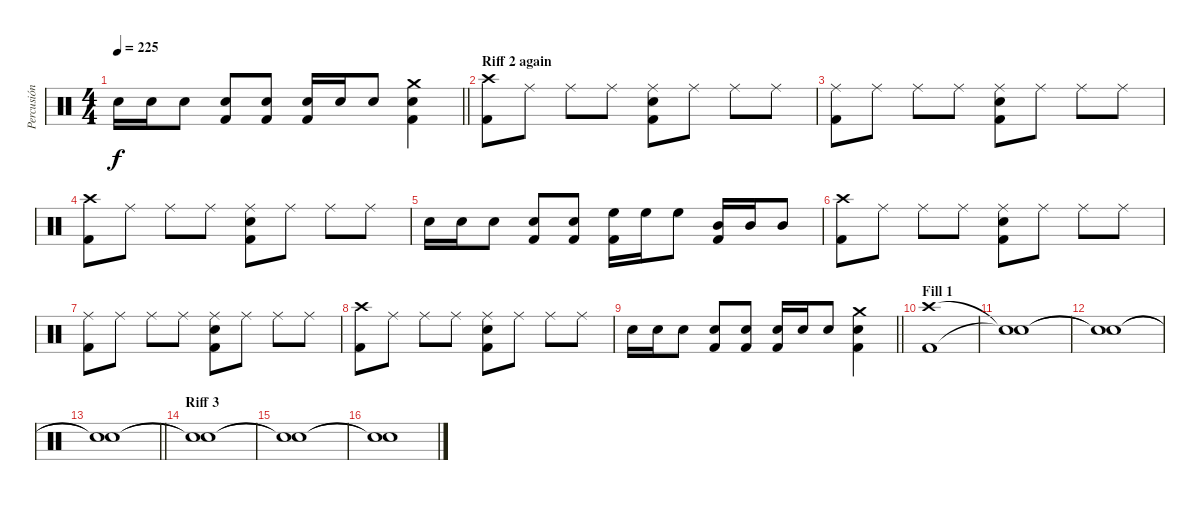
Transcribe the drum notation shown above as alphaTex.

\track ("Percusión" "Percusión") {instrument percussion}
\staff {score}
\articulation defaults
\ts (4 4)
\tempo 225
\clef neutral
\barLineRight lightlight
\ks c "Electric Snare (hit)".16{dy f} "Electric Snare (hit)".16 "Electric Snare (hit)".8
("Electric Snare (hit)" "Kick (hit) 2").8 ("Electric Snare (hit)" "Kick (hit) 2").8 ("Electric Snare (hit)" "Kick (hit) 2").16 "Electric Snare (hit)".16 "Electric Snare (hit)".8 ("Crash medium (hit)" "Electric Snare (hit)" "Kick (hit) 2").4 |
\section ("" "Riff 2 again")
("Crash high (hit)" "Kick (hit) 2").8 "Ride (middle)".8 "Ride (middle)".8 "Ride (middle)".8 ("Ride (middle)" "Electric Snare (hit)" "Kick (hit) 2").8 "Ride (middle)".8 "Ride (middle)".8 "Ride (middle)".8 |
("Ride (middle)" "Kick (hit) 2").8 "Ride (middle)".8 "Ride (middle)".8 "Ride (middle)".8 ("Ride (middle)" "Electric Snare (hit)" "Kick (hit) 2").8 "Ride (middle)".8 "Ride (middle)".8 "Ride (middle)".8 |
("Crash high (hit)" "Kick (hit) 2").8 "Ride (middle)".8 "Ride (middle)".8 "Ride (middle)".8 ("Ride (middle)" "Electric Snare (hit)" "Kick (hit) 2").8 "Ride (middle)".8 "Ride (middle)".8 "Ride (middle)".8 |
"Electric Snare (hit)".16 "Electric Snare (hit)".16 "Electric Snare (hit)".8 ("Electric Snare (hit)" "Kick (hit) 2").8 ("Electric Snare (hit)" "Kick (hit) 2").8 ("High Floor Tom (hit)" "Kick (hit) 2").16 "High Floor Tom (hit)".16 "High Floor Tom (hit)".8 ("Mid Tom (hit)" "Kick (hit) 2").16 "Mid Tom (hit)".16 "Mid Tom (hit)".8 |
("Crash high (hit)" "Kick (hit) 2").8 "Ride (middle)".8 "Ride (middle)".8 "Ride (middle)".8 ("Ride (middle)" "Electric Snare (hit)" "Kick (hit) 2").8 "Ride (middle)".8 "Ride (middle)".8 "Ride (middle)".8 |
("Ride (middle)" "Kick (hit) 2").8 "Ride (middle)".8 "Ride (middle)".8 "Ride (middle)".8 ("Ride (middle)" "Electric Snare (hit)" "Kick (hit) 2").8 "Ride (middle)".8 "Ride (middle)".8 "Ride (middle)".8 |
("Crash high (hit)" "Kick (hit) 2").8 "Ride (middle)".8 "Ride (middle)".8 "Ride (middle)".8 ("Ride (middle)" "Electric Snare (hit)" "Kick (hit) 2").8 "Ride (middle)".8 "Ride (middle)".8 "Ride (middle)".8 |
\barLineRight lightlight "Electric Snare (hit)".16 "Electric Snare (hit)".16 "Electric Snare (hit)".8
("Electric Snare (hit)" "Kick (hit) 2").8 ("Electric Snare (hit)" "Kick (hit) 2").8 ("Electric Snare (hit)" "Kick (hit) 2").16 "Electric Snare (hit)".16 "Electric Snare (hit)".8 ("Crash medium (hit)" "Electric Snare (hit)" "Kick (hit) 2").4 |
\section ("" "Fill 1")
("Crash high (hit)" "Kick (hit) 2").1 |
("Snare (hit)"{t} "Snare (hit)"{t}).1 |
("Snare (hit)"{t} "Snare (hit)"{t}).1 |
\barLineRight lightlight
("Snare (hit)"{t} "Snare (hit)"{t}).1 |
\section ("" "Riff 3")
("Snare (hit)"{t} "Snare (hit)"{t}).1 |
("Snare (hit)"{t} "Snare (hit)"{t}).1 |
("Snare (hit)"{t} "Snare (hit)"{t}).1
